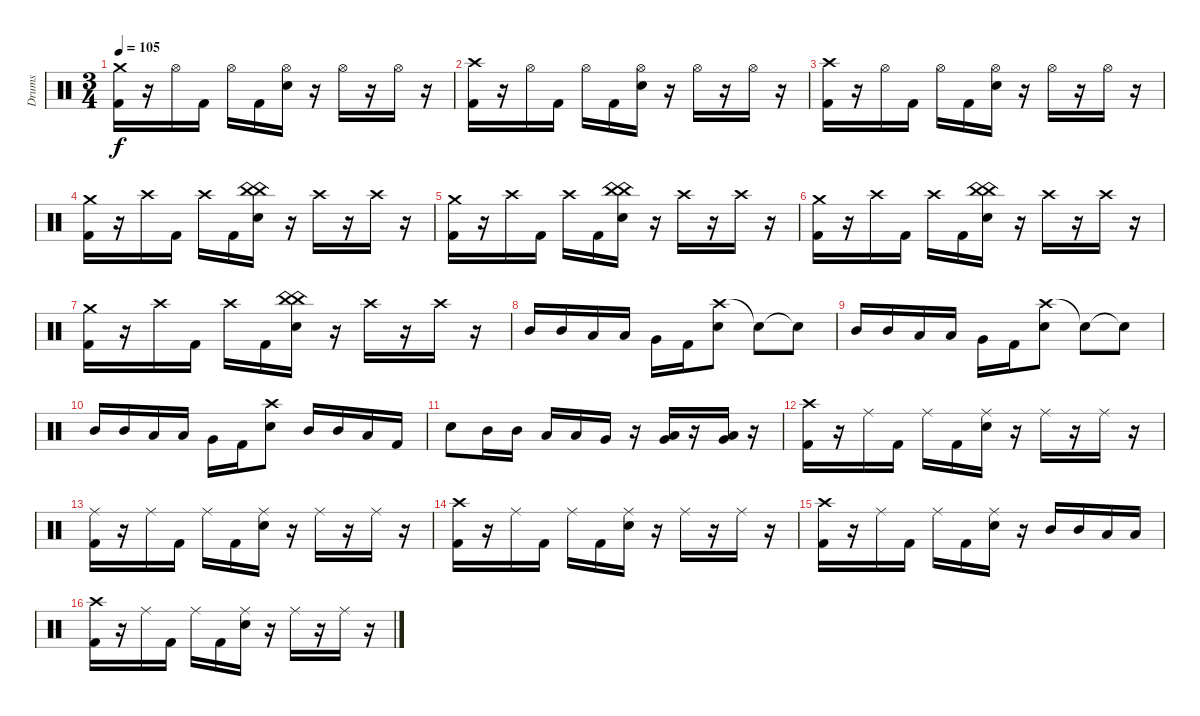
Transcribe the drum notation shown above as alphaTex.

\track ("Drums" "Drums") {instrument percussion}
\staff {score}
\articulation defaults
\ts (3 4)
\tempo 105
\clef neutral
\ks c
("Crash medium (hit)" "Kick (hit) 2").16{dy f} r.16 "Hi-Hat (open)".16 "Kick (hit) 2".16 "Hi-Hat (open)".16 "Kick (hit) 2".16 ("Hi-Hat (open)" "Electric Snare (hit)").16 r.16 "Hi-Hat (open)".16 r.16 "Hi-Hat (open)".16 r.16 |
("Crash high (hit)" "Kick (hit) 2").16 r.16 "Hi-Hat (open)".16 "Kick (hit) 2".16 "Hi-Hat (open)".16 "Kick (hit) 2".16 ("Hi-Hat (open)" "Electric Snare (hit)").16 r.16 "Hi-Hat (open)".16 r.16 "Hi-Hat (open)".16 r.16 |
("Crash high (hit)" "Kick (hit) 2").16 r.16 "Hi-Hat (open)".16 "Kick (hit) 2".16 "Hi-Hat (open)".16 "Kick (hit) 2".16 ("Hi-Hat (open)" "Electric Snare (hit)").16 r.16 "Hi-Hat (open)".16 r.16 "Hi-Hat (open)".16 r.16 |
("Crash medium (hit)" "Kick (hit) 2").16 r.16 "Crash high (hit)".16 "Kick (hit) 2".16 "Crash high (hit)".16 "Kick (hit) 2".16 ("China (hit)" "China (hit)" "Electric Snare (hit)").16 r.16 "Crash high (hit)".16 r.16 "Crash high (hit)".16 r.16 |
("Crash medium (hit)" "Kick (hit) 2").16 r.16 "Crash high (hit)".16 "Kick (hit) 2".16 "Crash high (hit)".16 "Kick (hit) 2".16 ("China (hit)" "China (hit)" "Electric Snare (hit)").16 r.16 "Crash high (hit)".16 r.16 "Crash high (hit)".16 r.16 |
("Crash medium (hit)" "Kick (hit) 2").16 r.16 "Crash high (hit)".16 "Kick (hit) 2".16 "Crash high (hit)".16 "Kick (hit) 2".16 ("China (hit)" "China (hit)" "Electric Snare (hit)").16 r.16 "Crash high (hit)".16 r.16 "Crash high (hit)".16 r.16 |
("Crash medium (hit)" "Kick (hit) 2").16 r.16 "Crash high (hit)".16 "Kick (hit) 2".16 "Crash high (hit)".16 "Kick (hit) 2".16 ("China (hit)" "China (hit)" "Electric Snare (hit)").16 r.16 "Crash high (hit)".16 r.16 "Crash high (hit)".16 r.16 |
"Mid Tom (hit)".16 "Mid Tom (hit)".16 "Low Tom (hit)".16 "Low Tom (hit)".16 "Very Low Tom (hit)".16 "Kick (hit) 2".16 ("Crash high (hit)" "Electric Snare (hit)").8 "Snare (hit)"{t}.8 "Snare (hit)"{t}.8 |
"Mid Tom (hit)".16 "Mid Tom (hit)".16 "Low Tom (hit)".16 "Low Tom (hit)".16 "Very Low Tom (hit)".16 "Kick (hit) 2".16 ("Crash high (hit)" "Electric Snare (hit)").8 "Snare (hit)"{t}.8 "Snare (hit)"{t}.8 |
"Mid Tom (hit)".16 "Mid Tom (hit)".16 "Low Tom (hit)".16 "Low Tom (hit)".16 "Very Low Tom (hit)".16 "Kick (hit) 2".16 ("Crash high (hit)" "Electric Snare (hit)").8 "Mid Tom (hit)".16 "Mid Tom (hit)".16 "Low Tom (hit)".16 "Kick (hit) 2".16 |
"Electric Snare (hit)".8 "Mid Tom (hit)".16 "Mid Tom (hit)".16 "Low Tom (hit)".16 "Low Tom (hit)".16 "Very Low Tom (hit)".16 r.16 ("Low Tom (hit)" "Very Low Tom (hit)").16 r.16 ("Low Tom (hit)" "Very Low Tom (hit)").16 r.16 |
("Crash high (hit)" "Kick (hit) 2").16 r.16 "Ride (middle)".16 "Kick (hit) 2".16 "Ride (middle)".16 "Kick (hit) 2".16 ("Ride (middle)" "Electric Snare (hit)").16 r.16 "Ride (middle)".16 r.16 "Ride (middle)".16 r.16 |
("Ride (middle)" "Kick (hit) 2").16 r.16 "Ride (middle)".16 "Kick (hit) 2".16 "Ride (middle)".16 "Kick (hit) 2".16 ("Ride (middle)" "Electric Snare (hit)").16 r.16 "Ride (middle)".16 r.16 "Ride (middle)".16 r.16 |
("Crash high (hit)" "Kick (hit) 2").16 r.16 "Ride (middle)".16 "Kick (hit) 2".16 "Ride (middle)".16 "Kick (hit) 2".16 ("Ride (middle)" "Electric Snare (hit)").16 r.16 "Ride (middle)".16 r.16 "Ride (middle)".16 r.16 |
("Crash high (hit)" "Kick (hit) 2").16 r.16 "Ride (middle)".16 "Kick (hit) 2".16 "Ride (middle)".16 "Kick (hit) 2".16 ("Ride (middle)" "Electric Snare (hit)").16 r.16 "Mid Tom (hit)".16 "Mid Tom (hit)".16 "Low Tom (hit)".16 "Low Tom (hit)".16 |
("Crash high (hit)" "Kick (hit) 2").16 r.16 "Ride (middle)".16 "Kick (hit) 2".16 "Ride (middle)".16 "Kick (hit) 2".16 ("Ride (middle)" "Electric Snare (hit)").16 r.16 "Ride (middle)".16 r.16 "Ride (middle)".16 r.16
